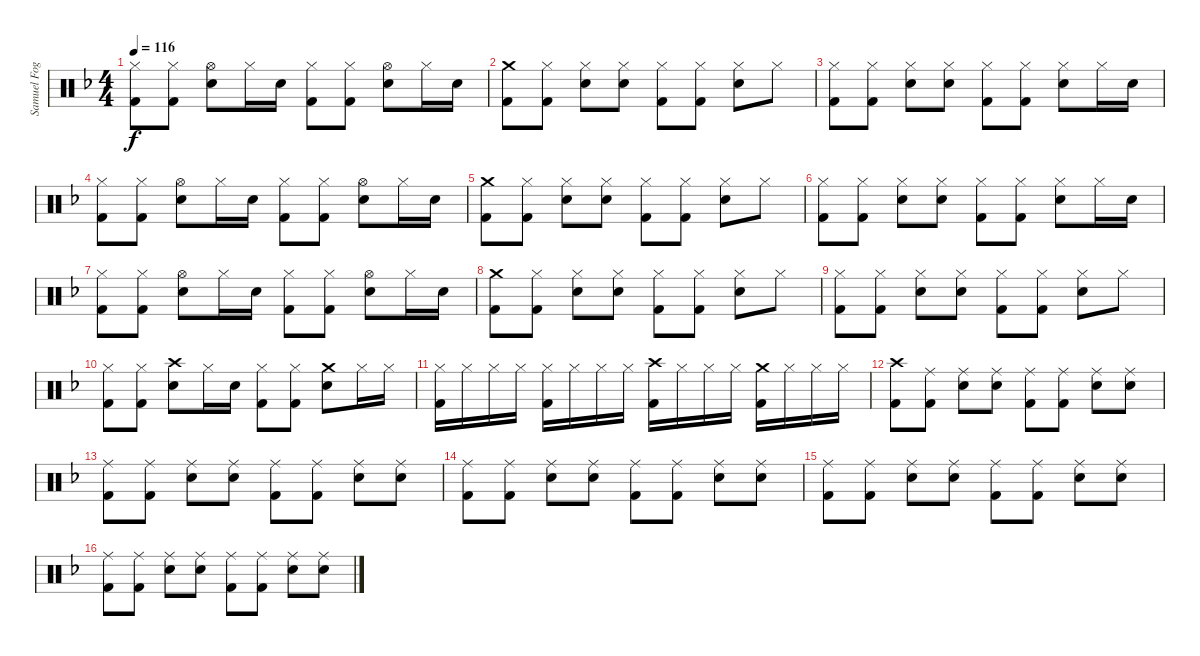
\track ("Samuel Fogarino" "Samuel Fog") {instrument percussion}
\staff {score}
\articulation defaults
\ts (4 4)
\tempo 116
\clef neutral
\ks f
("Hi-Hat (closed)" "Kick (hit) 2").8{dy f} ("Hi-Hat (closed)" "Kick (hit) 2").8 ("Hi-Hat (open)" "Snare (hit) 2").8 "Hi-Hat (closed)".16 "Snare (hit) 2".16 ("Hi-Hat (closed)" "Kick (hit) 2").8 ("Hi-Hat (closed)" "Kick (hit) 2").8 ("Hi-Hat (open)" "Snare (hit) 2").8 "Hi-Hat (closed)".16 "Snare (hit) 2".16 |
("Crash medium (hit)" "Kick (hit) 2").8 ("Hi-Hat (closed)" "Kick (hit) 2").8 ("Hi-Hat (closed)" "Snare (hit) 2").8 ("Hi-Hat (closed)" "Snare (hit) 2").8 ("Hi-Hat (closed)" "Kick (hit) 2").8 ("Hi-Hat (closed)" "Kick (hit) 2").8 ("Hi-Hat (closed)" "Snare (hit) 2").8 "Hi-Hat (closed)".8 |
("Hi-Hat (closed)" "Kick (hit) 2").8 ("Hi-Hat (closed)" "Kick (hit) 2").8 ("Hi-Hat (closed)" "Snare (hit) 2").8 ("Hi-Hat (closed)" "Snare (hit) 2").8 ("Hi-Hat (closed)" "Kick (hit) 2").8 ("Hi-Hat (closed)" "Kick (hit) 2").8 ("Hi-Hat (closed)" "Snare (hit) 2").8 "Hi-Hat (closed)".16 "Snare (hit) 2".16 |
("Hi-Hat (closed)" "Kick (hit) 2").8 ("Hi-Hat (closed)" "Kick (hit) 2").8 ("Hi-Hat (open)" "Snare (hit) 2").8 "Hi-Hat (closed)".16 "Snare (hit) 2".16 ("Hi-Hat (closed)" "Kick (hit) 2").8 ("Hi-Hat (closed)" "Kick (hit) 2").8 ("Hi-Hat (open)" "Snare (hit) 2").8 "Hi-Hat (closed)".16 "Snare (hit) 2".16 |
("Crash medium (hit)" "Kick (hit) 2").8 ("Hi-Hat (closed)" "Kick (hit) 2").8 ("Hi-Hat (closed)" "Snare (hit) 2").8 ("Hi-Hat (closed)" "Snare (hit) 2").8 ("Hi-Hat (closed)" "Kick (hit) 2").8 ("Hi-Hat (closed)" "Kick (hit) 2").8 ("Hi-Hat (closed)" "Snare (hit) 2").8 "Hi-Hat (closed)".8 |
("Hi-Hat (closed)" "Kick (hit) 2").8 ("Hi-Hat (closed)" "Kick (hit) 2").8 ("Hi-Hat (closed)" "Snare (hit) 2").8 ("Hi-Hat (closed)" "Snare (hit) 2").8 ("Hi-Hat (closed)" "Kick (hit) 2").8 ("Hi-Hat (closed)" "Kick (hit) 2").8 ("Hi-Hat (closed)" "Snare (hit) 2").8 "Hi-Hat (closed)".16 "Snare (hit) 2".16 |
("Hi-Hat (closed)" "Kick (hit) 2").8 ("Hi-Hat (closed)" "Kick (hit) 2").8 ("Hi-Hat (open)" "Snare (hit) 2").8 "Hi-Hat (closed)".16 "Snare (hit) 2".16 ("Hi-Hat (closed)" "Kick (hit) 2").8 ("Hi-Hat (closed)" "Kick (hit) 2").8 ("Hi-Hat (open)" "Snare (hit) 2").8 "Hi-Hat (closed)".16 "Snare (hit) 2".16 |
("Crash medium (hit)" "Kick (hit) 2").8 ("Hi-Hat (closed)" "Kick (hit) 2").8 ("Hi-Hat (closed)" "Snare (hit) 2").8 ("Hi-Hat (closed)" "Snare (hit) 2").8 ("Hi-Hat (closed)" "Kick (hit) 2").8 ("Hi-Hat (closed)" "Kick (hit) 2").8 ("Hi-Hat (closed)" "Snare (hit) 2").8 "Hi-Hat (closed)".8 |
("Hi-Hat (closed)" "Kick (hit) 2").8 ("Hi-Hat (closed)" "Kick (hit) 2").8 ("Hi-Hat (closed)" "Snare (hit) 2").8 ("Hi-Hat (closed)" "Snare (hit) 2").8 ("Hi-Hat (closed)" "Kick (hit) 2").8 ("Hi-Hat (closed)" "Kick (hit) 2").8 ("Hi-Hat (closed)" "Snare (hit) 2").8 "Hi-Hat (closed)".8 |
("Hi-Hat (closed)" "Kick (hit) 2").8 ("Hi-Hat (closed)" "Kick (hit) 2").8 ("Crash high (hit)" "Snare (hit) 2").8 "Hi-Hat (closed)".16 "Snare (hit) 2".16 ("Hi-Hat (closed)" "Kick (hit) 2").8 ("Hi-Hat (closed)" "Kick (hit) 2").8 ("Crash medium (hit)" "Snare (hit) 2").8 "Hi-Hat (closed)".16 "Hi-Hat (closed)".16 |
("Hi-Hat (closed)" "Kick (hit) 2").16 "Hi-Hat (closed)".16 "Hi-Hat (closed)".16 "Hi-Hat (closed)".16 ("Hi-Hat (closed)" "Kick (hit) 2").16 "Hi-Hat (closed)".16 "Hi-Hat (closed)".16 "Hi-Hat (closed)".16 ("Crash high (hit)" "Kick (hit) 2").16 "Hi-Hat (closed)".16 "Hi-Hat (closed)".16 "Hi-Hat (closed)".16 ("Crash medium (hit)" "Kick (hit) 2").16 "Hi-Hat (closed)".16 "Hi-Hat (closed)".16 "Hi-Hat (closed)".16 |
("Crash high (hit)" "Kick (hit) 2").8 ("Ride (middle)" "Kick (hit) 2").8 ("Ride (middle)" "Snare (hit) 2").8 ("Ride (middle)" "Snare (hit) 2").8 ("Ride (middle)" "Kick (hit) 2").8 ("Ride (middle)" "Kick (hit) 2").8 ("Ride (middle)" "Snare (hit) 2").8 ("Ride (middle)" "Snare (hit) 2").8 |
("Ride (middle)" "Kick (hit) 2").8 ("Ride (middle)" "Kick (hit) 2").8 ("Ride (middle)" "Snare (hit) 2").8 ("Ride (middle)" "Snare (hit) 2").8 ("Ride (middle)" "Kick (hit) 2").8 ("Ride (middle)" "Kick (hit) 2").8 ("Ride (middle)" "Snare (hit) 2").8 ("Ride (middle)" "Snare (hit) 2").8 |
("Ride (middle)" "Kick (hit) 2").8 ("Ride (middle)" "Kick (hit) 2").8 ("Ride (middle)" "Snare (hit) 2").8 ("Ride (middle)" "Snare (hit) 2").8 ("Ride (middle)" "Kick (hit) 2").8 ("Ride (middle)" "Kick (hit) 2").8 ("Ride (middle)" "Snare (hit) 2").8 ("Ride (middle)" "Snare (hit) 2").8 |
("Ride (middle)" "Kick (hit) 2").8 ("Ride (middle)" "Kick (hit) 2").8 ("Ride (middle)" "Snare (hit) 2").8 ("Ride (middle)" "Snare (hit) 2").8 ("Ride (middle)" "Kick (hit) 2").8 ("Ride (middle)" "Kick (hit) 2").8 ("Ride (middle)" "Snare (hit) 2").8 ("Ride (middle)" "Snare (hit) 2").8 |
("Ride (middle)" "Kick (hit) 2").8 ("Ride (middle)" "Kick (hit) 2").8 ("Ride (middle)" "Snare (hit) 2").8 ("Ride (middle)" "Snare (hit) 2").8 ("Ride (middle)" "Kick (hit) 2").8 ("Ride (middle)" "Kick (hit) 2").8 ("Ride (middle)" "Snare (hit) 2").8 ("Ride (middle)" "Snare (hit) 2").8
